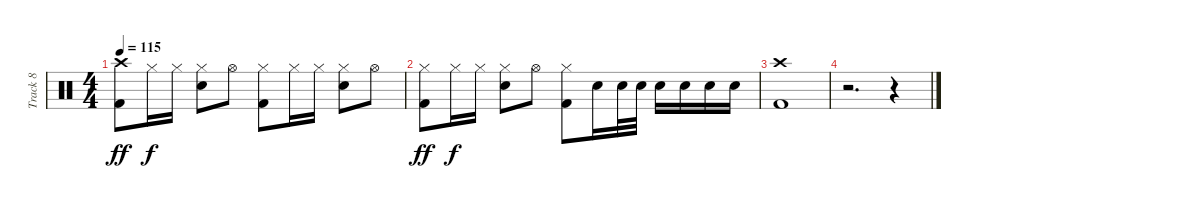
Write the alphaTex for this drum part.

\track ("Track 8" "Track 8") {instrument percussion}
\staff {score}
\articulation defaults
\ts (4 4)
\tempo 115
\clef neutral
\ks c
("Crash high (hit)" "Kick (hit) 2").8{dy ff} "Hi-Hat (closed)".16{dy f} "Hi-Hat (closed)".16 ("Hi-Hat (closed)" "Electric Snare (hit)").8 "Hi-Hat (open)".8 ("Hi-Hat (closed)" "Kick (hit) 2").8 "Hi-Hat (closed)".16 "Hi-Hat (closed)".16 ("Hi-Hat (closed)" "Electric Snare (hit)").8 "Hi-Hat (open)".8 |
("Hi-Hat (closed)" "Kick (hit) 2").8{dy ff} "Hi-Hat (closed)".16{dy f} "Hi-Hat (closed)".16 ("Hi-Hat (closed)" "Electric Snare (hit)").8 "Hi-Hat (open)".8 ("Hi-Hat (closed)" "Kick (hit) 2").8 "Electric Snare (hit)".16 "Electric Snare (hit)".32 "Electric Snare (hit)".32 "Electric Snare (hit)".16 "Electric Snare (hit)".16 "Electric Snare (hit)".16 "Electric Snare (hit)".16 |
("Crash high (hit)" "Kick (hit) 2").1 |
r.2{d} r.4
